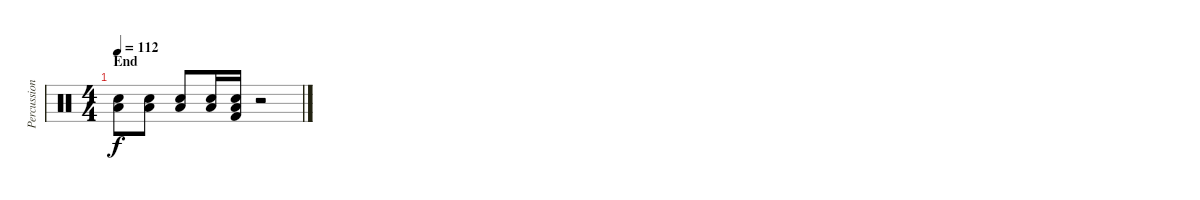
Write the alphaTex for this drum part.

\track ("Percussion" "Percussion") {instrument percussion}
\staff {score}
\articulation defaults
\ts (4 4)
\section ("" "End")
\tempo 112
\clef neutral
\ks c
("Snare (hit) 2" "Low Tom (hit)").8{dy f} ("Snare (hit) 2" "Low Tom (hit)").8 ("Snare (hit) 2" "Low Tom (hit)").8 ("Snare (hit) 2" "Low Tom (hit)").16 ("Snare (hit) 2" "Low Tom (hit)" "Kick (hit) 2").16 r.2
